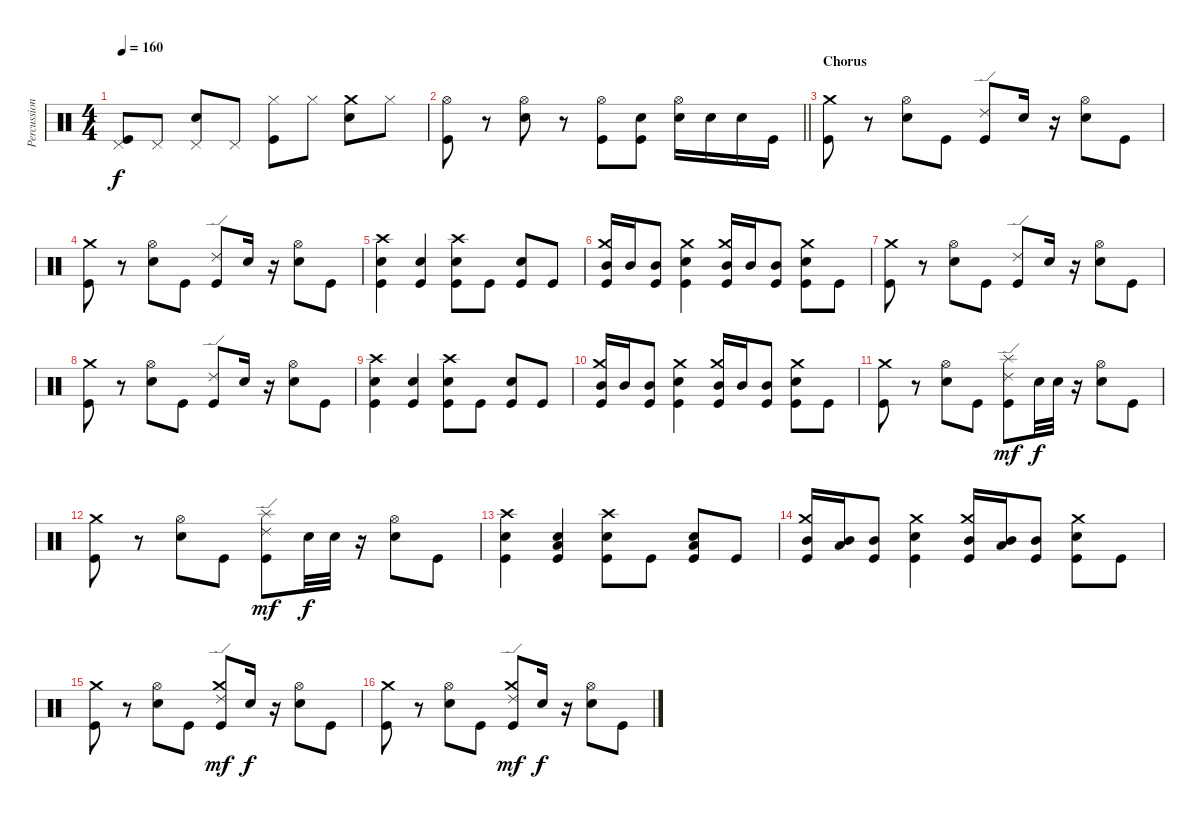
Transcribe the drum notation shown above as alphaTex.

\track ("Percussion" "Percussion") {instrument percussion}
\staff {score}
\articulation defaults
\ts (4 4)
\tempo 160
\clef neutral
\ks c
("Pedal Hi-Hat (hit)" "Kick (hit)").8{dy f} "Pedal Hi-Hat (hit)".8 ("Pedal Hi-Hat (hit)" "Snare (hit) 2").8 "Pedal Hi-Hat (hit)".8 ("Hi-Hat (closed)" "Kick (hit)").8 "Hi-Hat (closed)".8 ("Crash medium (hit)" "Snare (hit) 2").8 "Hi-Hat (closed)".8 |
\barLineRight lightlight
("Hi-Hat (open)" "Kick (hit)").8 r.8 ("Hi-Hat (open)" "Snare (hit) 2").8 r.8 ("Hi-Hat (open)" "Kick (hit)").8 ("Snare (hit) 2" "Kick (hit)").8 ("Hi-Hat (open)" "Snare (hit) 2").16 "Snare (hit) 2".16 "Snare (hit) 2".16 "Kick (hit)".16 |
\section ("" "Chorus")
("Crash medium (hit)" "Kick (hit)").8 r.8 ("Hi-Hat (open)" "Snare (hit) 2").8 "Kick (hit)".8 ("Ride (edge) 2" "Kick (hit)").8 "Snare (hit) 2".16 r.16 ("Hi-Hat (open)" "Snare (hit) 2").8 "Kick (hit)".8 |
("Crash medium (hit)" "Kick (hit)").8 r.8 ("Hi-Hat (open)" "Snare (hit) 2").8 "Kick (hit)".8 ("Ride (edge) 2" "Kick (hit)").8 "Snare (hit) 2".16 r.16 ("Hi-Hat (open)" "Snare (hit) 2").8 "Kick (hit)".8 |
("Crash high (hit)" "Snare (hit) 2" "Kick (hit)").4 ("Snare (hit) 2" "Kick (hit)").4 ("Crash high (hit)" "Snare (hit) 2" "Kick (hit)").8 "Kick (hit)".8 ("Snare (hit) 2" "Kick (hit)").8 "Kick (hit)".8 |
("Crash medium (hit)" "Mid Tom (hit)" "Kick (hit)").16 "Mid Tom (hit)".16 ("Mid Tom (hit)" "Kick (hit)").8 ("Crash medium (hit)" "Snare (hit) 2" "Kick (hit)").4 ("Crash medium (hit)" "Mid Tom (hit)" "Kick (hit)").16 "Mid Tom (hit)".16 ("Mid Tom (hit)" "Kick (hit)").8 ("Crash medium (hit)" "Snare (hit) 2" "Kick (hit)").8 "Kick (hit)".8 |
("Crash medium (hit)" "Kick (hit)").8 r.8 ("Hi-Hat (open)" "Snare (hit) 2").8 "Kick (hit)".8 ("Ride (edge) 2" "Kick (hit)").8 "Snare (hit) 2".16 r.16 ("Hi-Hat (open)" "Snare (hit) 2").8 "Kick (hit)".8 |
("Crash medium (hit)" "Kick (hit)").8 r.8 ("Hi-Hat (open)" "Snare (hit) 2").8 "Kick (hit)".8 ("Ride (edge) 2" "Kick (hit)").8 "Snare (hit) 2".16 r.16 ("Hi-Hat (open)" "Snare (hit) 2").8 "Kick (hit)".8 |
("Crash high (hit)" "Snare (hit) 2" "Kick (hit)").4 ("Snare (hit) 2" "Kick (hit)").4 ("Crash high (hit)" "Snare (hit) 2" "Kick (hit)").8 "Kick (hit)".8 ("Snare (hit) 2" "Kick (hit)").8 "Kick (hit)".8 |
("Crash medium (hit)" "Mid Tom (hit)" "Kick (hit)").16 "Mid Tom (hit)".16 ("Mid Tom (hit)" "Kick (hit)").8 ("Crash medium (hit)" "Snare (hit) 2" "Kick (hit)").4 ("Crash medium (hit)" "Mid Tom (hit)" "Kick (hit)").16 "Mid Tom (hit)".16 ("Mid Tom (hit)" "Kick (hit)").8 ("Crash medium (hit)" "Snare (hit) 2" "Kick (hit)").8 "Kick (hit)".8 |
("Crash medium (hit)" "Kick (hit)").8 r.8 ("Hi-Hat (open)" "Snare (hit) 2").8 "Kick (hit)".8 ("Ride (edge) 2" "Splash (hit)" "Kick (hit)").8{dy mf} "Snare (hit) 2".32{dy f} "Snare (hit) 2".32 r.16 ("Hi-Hat (open)" "Snare (hit) 2").8 "Kick (hit)".8 |
("Crash medium (hit)" "Kick (hit)").8 r.8 ("Hi-Hat (open)" "Snare (hit) 2").8 "Kick (hit)".8 ("Ride (edge) 2" "Splash (hit)" "Kick (hit)").8{dy mf} "Snare (hit) 2".32{dy f} "Snare (hit) 2".32 r.16 ("Hi-Hat (open)" "Snare (hit) 2").8 "Kick (hit)".8 |
("Crash high (hit)" "Snare (hit) 2" "Kick (hit)").4 ("Low Tom (hit)" "Snare (hit) 2" "Kick (hit)").4 ("Crash high (hit)" "Snare (hit) 2" "Kick (hit)").8 "Kick (hit)".8 ("Low Tom (hit)" "Snare (hit) 2" "Kick (hit)").8 "Kick (hit)".8 |
("Crash medium (hit)" "Mid Tom (hit)" "Kick (hit)").16 ("Low Tom (hit)" "Mid Tom (hit)").16 ("Mid Tom (hit)" "Kick (hit)").8 ("Crash medium (hit)" "Snare (hit) 2" "Kick (hit)").4 ("Crash medium (hit)" "Mid Tom (hit)" "Kick (hit)").16 ("Low Tom (hit)" "Mid Tom (hit)").16 ("Mid Tom (hit)" "Kick (hit)").8 ("Crash medium (hit)" "Snare (hit) 2" "Kick (hit)").8 "Kick (hit)".8 |
("Crash medium (hit)" "Kick (hit)").8 r.8 ("Hi-Hat (open)" "Snare (hit) 2").8 "Kick (hit)".8 ("Crash medium (hit)" "Ride (edge) 2" "Kick (hit)").8{dy mf} "Snare (hit) 2".16{dy f} r.16 ("Hi-Hat (open)" "Snare (hit) 2").8 "Kick (hit)".8 |
("Crash medium (hit)" "Kick (hit)").8 r.8 ("Hi-Hat (open)" "Snare (hit) 2").8 "Kick (hit)".8 ("Crash medium (hit)" "Ride (edge) 2" "Kick (hit)").8{dy mf} "Snare (hit) 2".16{dy f} r.16 ("Hi-Hat (open)" "Snare (hit) 2").8 "Kick (hit)".8
